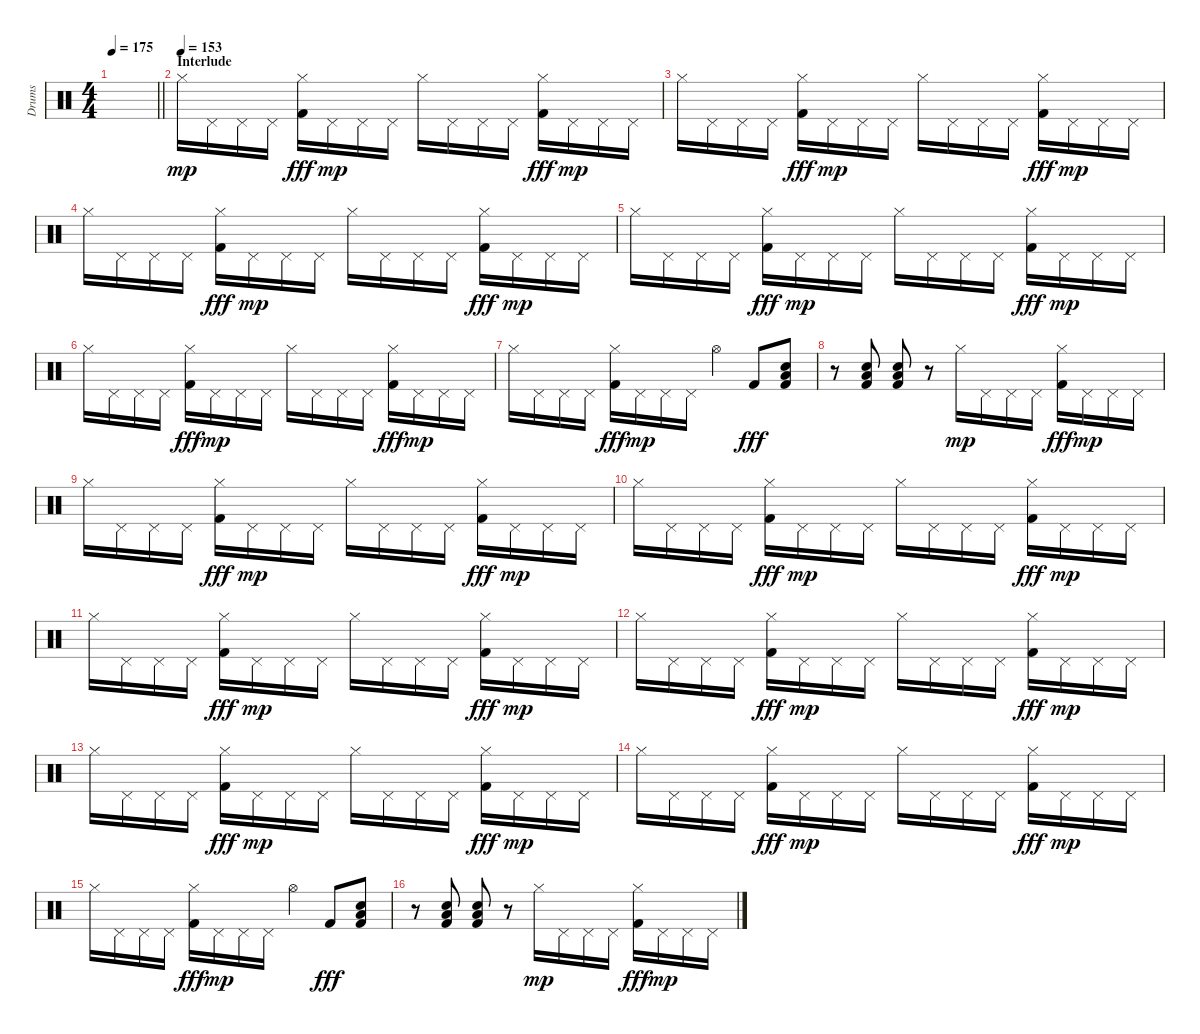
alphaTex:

\track ("Drums" "Drums") {instrument percussion}
\staff {score}
\articulation defaults
\ts (4 4)
\tempo 175
\clef neutral
\barLineRight lightlight
\ks c
|
\section ("" "Interlude")
\tempo (153)
"Hi-Hat (closed)".16{dy mp} "Pedal Hi-Hat (hit)".16 "Pedal Hi-Hat (hit)".16 "Pedal Hi-Hat (hit)".16 ("Hi-Hat (closed)" "Kick (hit) 2").16{dy fff} "Pedal Hi-Hat (hit)".16{dy mp} "Pedal Hi-Hat (hit)".16 "Pedal Hi-Hat (hit)".16 "Hi-Hat (closed)".16 "Pedal Hi-Hat (hit)".16 "Pedal Hi-Hat (hit)".16 "Pedal Hi-Hat (hit)".16 ("Hi-Hat (closed)" "Kick (hit) 2").16{dy fff} "Pedal Hi-Hat (hit)".16{dy mp} "Pedal Hi-Hat (hit)".16 "Pedal Hi-Hat (hit)".16 |
"Hi-Hat (closed)".16 "Pedal Hi-Hat (hit)".16 "Pedal Hi-Hat (hit)".16 "Pedal Hi-Hat (hit)".16 ("Hi-Hat (closed)" "Kick (hit) 2").16{dy fff} "Pedal Hi-Hat (hit)".16{dy mp} "Pedal Hi-Hat (hit)".16 "Pedal Hi-Hat (hit)".16 "Hi-Hat (closed)".16 "Pedal Hi-Hat (hit)".16 "Pedal Hi-Hat (hit)".16 "Pedal Hi-Hat (hit)".16 ("Hi-Hat (closed)" "Kick (hit) 2").16{dy fff} "Pedal Hi-Hat (hit)".16{dy mp} "Pedal Hi-Hat (hit)".16 "Pedal Hi-Hat (hit)".16 |
"Hi-Hat (closed)".16 "Pedal Hi-Hat (hit)".16 "Pedal Hi-Hat (hit)".16 "Pedal Hi-Hat (hit)".16 ("Hi-Hat (closed)" "Kick (hit) 2").16{dy fff} "Pedal Hi-Hat (hit)".16{dy mp} "Pedal Hi-Hat (hit)".16 "Pedal Hi-Hat (hit)".16 "Hi-Hat (closed)".16 "Pedal Hi-Hat (hit)".16 "Pedal Hi-Hat (hit)".16 "Pedal Hi-Hat (hit)".16 ("Hi-Hat (closed)" "Kick (hit) 2").16{dy fff} "Pedal Hi-Hat (hit)".16{dy mp} "Pedal Hi-Hat (hit)".16 "Pedal Hi-Hat (hit)".16 |
"Hi-Hat (closed)".16 "Pedal Hi-Hat (hit)".16 "Pedal Hi-Hat (hit)".16 "Pedal Hi-Hat (hit)".16 ("Hi-Hat (closed)" "Kick (hit) 2").16{dy fff} "Pedal Hi-Hat (hit)".16{dy mp} "Pedal Hi-Hat (hit)".16 "Pedal Hi-Hat (hit)".16 "Hi-Hat (closed)".16 "Pedal Hi-Hat (hit)".16 "Pedal Hi-Hat (hit)".16 "Pedal Hi-Hat (hit)".16 ("Hi-Hat (closed)" "Kick (hit) 2").16{dy fff} "Pedal Hi-Hat (hit)".16{dy mp} "Pedal Hi-Hat (hit)".16 "Pedal Hi-Hat (hit)".16 |
"Hi-Hat (closed)".16 "Pedal Hi-Hat (hit)".16 "Pedal Hi-Hat (hit)".16 "Pedal Hi-Hat (hit)".16 ("Hi-Hat (closed)" "Kick (hit) 2").16{dy fff} "Pedal Hi-Hat (hit)".16{dy mp} "Pedal Hi-Hat (hit)".16 "Pedal Hi-Hat (hit)".16 "Hi-Hat (closed)".16 "Pedal Hi-Hat (hit)".16 "Pedal Hi-Hat (hit)".16 "Pedal Hi-Hat (hit)".16 ("Hi-Hat (closed)" "Kick (hit) 2").16{dy fff} "Pedal Hi-Hat (hit)".16{dy mp} "Pedal Hi-Hat (hit)".16 "Pedal Hi-Hat (hit)".16 |
"Hi-Hat (closed)".16 "Pedal Hi-Hat (hit)".16 "Pedal Hi-Hat (hit)".16 "Pedal Hi-Hat (hit)".16 ("Hi-Hat (closed)" "Kick (hit) 2").16{dy fff} "Pedal Hi-Hat (hit)".16{dy mp} "Pedal Hi-Hat (hit)".16 "Pedal Hi-Hat (hit)".16 "Hi-Hat (open)".4 "Kick (hit) 2".8{dy fff} ("Electric Snare (hit)" "Low Floor Tom (hit)" "Kick (hit) 2").8 |
r.8 ("Electric Snare (hit)" "Low Floor Tom (hit)" "Kick (hit) 2").8 ("Electric Snare (hit)" "Low Floor Tom (hit)" "Kick (hit) 2").8 r.8 "Hi-Hat (closed)".16{dy mp} "Pedal Hi-Hat (hit)".16 "Pedal Hi-Hat (hit)".16 "Pedal Hi-Hat (hit)".16 ("Hi-Hat (closed)" "Kick (hit) 2").16{dy fff} "Pedal Hi-Hat (hit)".16{dy mp} "Pedal Hi-Hat (hit)".16 "Pedal Hi-Hat (hit)".16 |
"Hi-Hat (closed)".16 "Pedal Hi-Hat (hit)".16 "Pedal Hi-Hat (hit)".16 "Pedal Hi-Hat (hit)".16 ("Hi-Hat (closed)" "Kick (hit) 2").16{dy fff} "Pedal Hi-Hat (hit)".16{dy mp} "Pedal Hi-Hat (hit)".16 "Pedal Hi-Hat (hit)".16 "Hi-Hat (closed)".16 "Pedal Hi-Hat (hit)".16 "Pedal Hi-Hat (hit)".16 "Pedal Hi-Hat (hit)".16 ("Hi-Hat (closed)" "Kick (hit) 2").16{dy fff} "Pedal Hi-Hat (hit)".16{dy mp} "Pedal Hi-Hat (hit)".16 "Pedal Hi-Hat (hit)".16 |
"Hi-Hat (closed)".16 "Pedal Hi-Hat (hit)".16 "Pedal Hi-Hat (hit)".16 "Pedal Hi-Hat (hit)".16 ("Hi-Hat (closed)" "Kick (hit) 2").16{dy fff} "Pedal Hi-Hat (hit)".16{dy mp} "Pedal Hi-Hat (hit)".16 "Pedal Hi-Hat (hit)".16 "Hi-Hat (closed)".16 "Pedal Hi-Hat (hit)".16 "Pedal Hi-Hat (hit)".16 "Pedal Hi-Hat (hit)".16 ("Hi-Hat (closed)" "Kick (hit) 2").16{dy fff} "Pedal Hi-Hat (hit)".16{dy mp} "Pedal Hi-Hat (hit)".16 "Pedal Hi-Hat (hit)".16 |
"Hi-Hat (closed)".16 "Pedal Hi-Hat (hit)".16 "Pedal Hi-Hat (hit)".16 "Pedal Hi-Hat (hit)".16 ("Hi-Hat (closed)" "Kick (hit) 2").16{dy fff} "Pedal Hi-Hat (hit)".16{dy mp} "Pedal Hi-Hat (hit)".16 "Pedal Hi-Hat (hit)".16 "Hi-Hat (closed)".16 "Pedal Hi-Hat (hit)".16 "Pedal Hi-Hat (hit)".16 "Pedal Hi-Hat (hit)".16 ("Hi-Hat (closed)" "Kick (hit) 2").16{dy fff} "Pedal Hi-Hat (hit)".16{dy mp} "Pedal Hi-Hat (hit)".16 "Pedal Hi-Hat (hit)".16 |
"Hi-Hat (closed)".16 "Pedal Hi-Hat (hit)".16 "Pedal Hi-Hat (hit)".16 "Pedal Hi-Hat (hit)".16 ("Hi-Hat (closed)" "Kick (hit) 2").16{dy fff} "Pedal Hi-Hat (hit)".16{dy mp} "Pedal Hi-Hat (hit)".16 "Pedal Hi-Hat (hit)".16 "Hi-Hat (closed)".16 "Pedal Hi-Hat (hit)".16 "Pedal Hi-Hat (hit)".16 "Pedal Hi-Hat (hit)".16 ("Hi-Hat (closed)" "Kick (hit) 2").16{dy fff} "Pedal Hi-Hat (hit)".16{dy mp} "Pedal Hi-Hat (hit)".16 "Pedal Hi-Hat (hit)".16 |
"Hi-Hat (closed)".16 "Pedal Hi-Hat (hit)".16 "Pedal Hi-Hat (hit)".16 "Pedal Hi-Hat (hit)".16 ("Hi-Hat (closed)" "Kick (hit) 2").16{dy fff} "Pedal Hi-Hat (hit)".16{dy mp} "Pedal Hi-Hat (hit)".16 "Pedal Hi-Hat (hit)".16 "Hi-Hat (closed)".16 "Pedal Hi-Hat (hit)".16 "Pedal Hi-Hat (hit)".16 "Pedal Hi-Hat (hit)".16 ("Hi-Hat (closed)" "Kick (hit) 2").16{dy fff} "Pedal Hi-Hat (hit)".16{dy mp} "Pedal Hi-Hat (hit)".16 "Pedal Hi-Hat (hit)".16 |
"Hi-Hat (closed)".16 "Pedal Hi-Hat (hit)".16 "Pedal Hi-Hat (hit)".16 "Pedal Hi-Hat (hit)".16 ("Hi-Hat (closed)" "Kick (hit) 2").16{dy fff} "Pedal Hi-Hat (hit)".16{dy mp} "Pedal Hi-Hat (hit)".16 "Pedal Hi-Hat (hit)".16 "Hi-Hat (closed)".16 "Pedal Hi-Hat (hit)".16 "Pedal Hi-Hat (hit)".16 "Pedal Hi-Hat (hit)".16 ("Hi-Hat (closed)" "Kick (hit) 2").16{dy fff} "Pedal Hi-Hat (hit)".16{dy mp} "Pedal Hi-Hat (hit)".16 "Pedal Hi-Hat (hit)".16 |
"Hi-Hat (closed)".16 "Pedal Hi-Hat (hit)".16 "Pedal Hi-Hat (hit)".16 "Pedal Hi-Hat (hit)".16 ("Hi-Hat (closed)" "Kick (hit) 2").16{dy fff} "Pedal Hi-Hat (hit)".16{dy mp} "Pedal Hi-Hat (hit)".16 "Pedal Hi-Hat (hit)".16 "Hi-Hat (open)".4 "Kick (hit) 2".8{dy fff} ("Electric Snare (hit)" "Low Floor Tom (hit)" "Kick (hit) 2").8 |
r.8 ("Electric Snare (hit)" "Low Floor Tom (hit)" "Kick (hit) 2").8 ("Electric Snare (hit)" "Low Floor Tom (hit)" "Kick (hit) 2").8 r.8 "Hi-Hat (closed)".16{dy mp} "Pedal Hi-Hat (hit)".16 "Pedal Hi-Hat (hit)".16 "Pedal Hi-Hat (hit)".16 ("Hi-Hat (closed)" "Kick (hit) 2").16{dy fff} "Pedal Hi-Hat (hit)".16{dy mp} "Pedal Hi-Hat (hit)".16 "Pedal Hi-Hat (hit)".16
